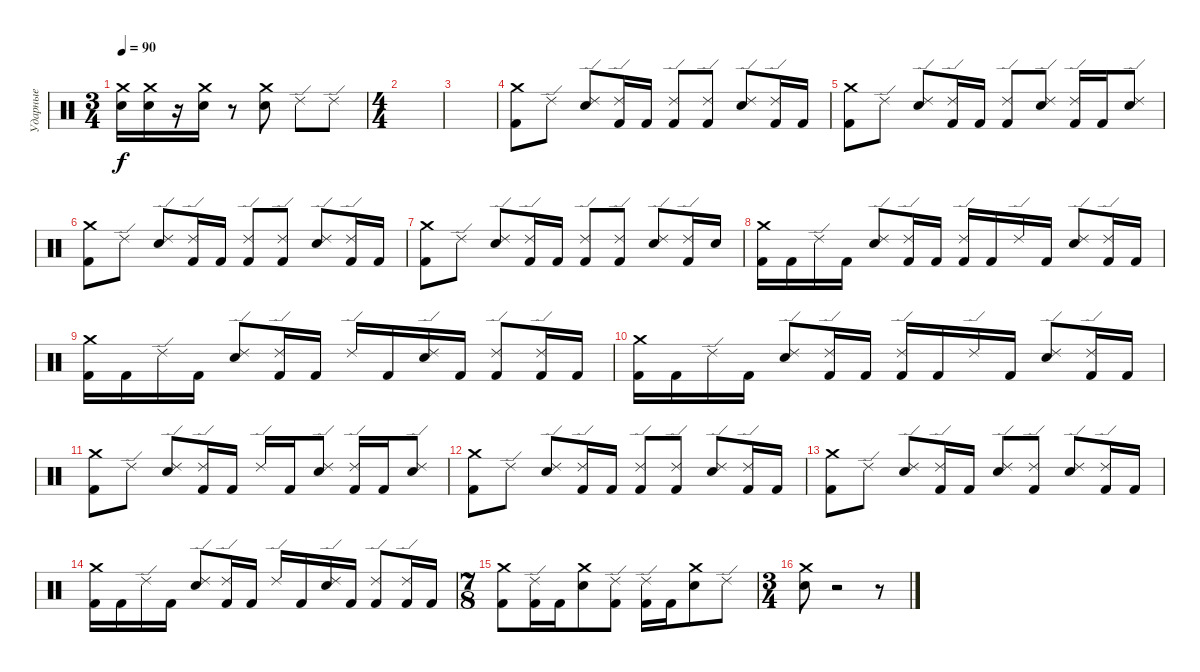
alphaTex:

\track ("Ударные" "Ударные") {instrument percussion}
\staff {score}
\articulation defaults
\ts (3 4)
\tempo 90
\clef neutral
\ks c
("Crash medium (hit)" "Electric Snare (hit)").16{dy f} ("Crash medium (hit)" "Electric Snare (hit)").16 r.16 ("Crash medium (hit)" "Electric Snare (hit)").16 r.8 ("Crash medium (hit)" "Electric Snare (hit)").8 "Ride (edge) 2".8 "Ride (edge) 2".8 |
\ts (4 4)
|
|
("Crash medium (hit)" "Kick (hit) 2").8 "Ride (edge) 2".8 ("Ride (edge) 2" "Electric Snare (hit)").8 ("Ride (edge) 2" "Kick (hit) 2").16 "Kick (hit) 2".16 ("Ride (edge) 2" "Kick (hit) 2").8 ("Ride (edge) 2" "Kick (hit) 2").8 ("Ride (edge) 2" "Electric Snare (hit)").8 ("Ride (edge) 2" "Kick (hit) 2").16 "Kick (hit) 2".16 |
("Crash medium (hit)" "Kick (hit) 2").8 "Ride (edge) 2".8 ("Ride (edge) 2" "Electric Snare (hit)").8 ("Ride (edge) 2" "Kick (hit) 2").16 "Kick (hit) 2".16 ("Ride (edge) 2" "Kick (hit) 2").8 ("Ride (edge) 2" "Electric Snare (hit)").8 ("Ride (edge) 2" "Kick (hit) 2").16 "Kick (hit) 2".16 ("Electric Snare (hit)" "Ride (edge) 2").8 |
("Crash medium (hit)" "Kick (hit) 2").8 "Ride (edge) 2".8 ("Ride (edge) 2" "Electric Snare (hit)").8 ("Ride (edge) 2" "Kick (hit) 2").16 "Kick (hit) 2".16 ("Ride (edge) 2" "Kick (hit) 2").8 ("Ride (edge) 2" "Kick (hit) 2").8 ("Ride (edge) 2" "Electric Snare (hit)").8 ("Ride (edge) 2" "Kick (hit) 2").16 "Kick (hit) 2".16 |
("Crash medium (hit)" "Kick (hit) 2").8 "Ride (edge) 2".8 ("Ride (edge) 2" "Electric Snare (hit)").8 ("Ride (edge) 2" "Kick (hit) 2").16 "Kick (hit) 2".16 ("Ride (edge) 2" "Kick (hit) 2").8 ("Ride (edge) 2" "Kick (hit) 2").8 ("Ride (edge) 2" "Electric Snare (hit)").8 ("Ride (edge) 2" "Kick (hit) 2").16 "Electric Snare (hit)".16 |
("Crash medium (hit)" "Kick (hit) 2").16 "Kick (hit) 2".16 "Ride (edge) 2".16 "Kick (hit) 2".16 ("Ride (edge) 2" "Electric Snare (hit)").8 ("Ride (edge) 2" "Kick (hit) 2").16 "Kick (hit) 2".16 ("Ride (edge) 2" "Kick (hit) 2").16 "Kick (hit) 2".16 "Ride (edge) 2".16 "Kick (hit) 2".16 ("Ride (edge) 2" "Electric Snare (hit)").8 ("Ride (edge) 2" "Kick (hit) 2").16 "Kick (hit) 2".16 |
("Crash medium (hit)" "Kick (hit) 2").16 "Kick (hit) 2".16 "Ride (edge) 2".16 "Kick (hit) 2".16 ("Ride (edge) 2" "Electric Snare (hit)").8 ("Ride (edge) 2" "Kick (hit) 2").16 "Kick (hit) 2".16 "Ride (edge) 2".16 "Kick (hit) 2".16 ("Electric Snare (hit)" "Ride (edge) 2").16 "Kick (hit) 2".16 ("Kick (hit) 2" "Ride (edge) 2").8 ("Ride (edge) 2" "Kick (hit) 2").16 "Kick (hit) 2".16 |
("Crash medium (hit)" "Kick (hit) 2").16 "Kick (hit) 2".16 "Ride (edge) 2".16 "Kick (hit) 2".16 ("Ride (edge) 2" "Electric Snare (hit)").8 ("Ride (edge) 2" "Kick (hit) 2").16 "Kick (hit) 2".16 ("Ride (edge) 2" "Kick (hit) 2").16 "Kick (hit) 2".16 "Ride (edge) 2".16 "Kick (hit) 2".16 ("Ride (edge) 2" "Electric Snare (hit)").8 ("Ride (edge) 2" "Kick (hit) 2").16 "Kick (hit) 2".16 |
("Crash medium (hit)" "Kick (hit) 2").8 "Ride (edge) 2".8 ("Ride (edge) 2" "Electric Snare (hit)").8 ("Ride (edge) 2" "Kick (hit) 2").16 "Kick (hit) 2".16 "Ride (edge) 2".16 "Kick (hit) 2".16 ("Ride (edge) 2" "Electric Snare (hit)").8 ("Ride (edge) 2" "Kick (hit) 2").16 "Kick (hit) 2".16 ("Electric Snare (hit)" "Ride (edge) 2").8 |
("Crash medium (hit)" "Kick (hit) 2").8 "Ride (edge) 2".8 ("Ride (edge) 2" "Electric Snare (hit)").8 ("Ride (edge) 2" "Kick (hit) 2").16 "Kick (hit) 2".16 ("Ride (edge) 2" "Kick (hit) 2").8 ("Ride (edge) 2" "Kick (hit) 2").8 ("Ride (edge) 2" "Electric Snare (hit)").8 ("Ride (edge) 2" "Kick (hit) 2").16 "Kick (hit) 2".16 |
("Crash medium (hit)" "Kick (hit) 2").8 "Ride (edge) 2".8 ("Ride (edge) 2" "Electric Snare (hit)").8 ("Ride (edge) 2" "Kick (hit) 2").16 "Kick (hit) 2".16 ("Ride (edge) 2" "Electric Snare (hit)").8 ("Ride (edge) 2" "Kick (hit) 2").8 ("Ride (edge) 2" "Electric Snare (hit)").8 ("Ride (edge) 2" "Kick (hit) 2").16 "Kick (hit) 2".16 |
("Crash medium (hit)" "Kick (hit) 2").16 "Kick (hit) 2".16 "Ride (edge) 2".16 "Kick (hit) 2".16 ("Ride (edge) 2" "Electric Snare (hit)").8 ("Ride (edge) 2" "Kick (hit) 2").16 "Kick (hit) 2".16 "Ride (edge) 2".16 "Kick (hit) 2".16 ("Electric Snare (hit)" "Ride (edge) 2").16 "Kick (hit) 2".16 ("Kick (hit) 2" "Ride (edge) 2").8 ("Ride (edge) 2" "Kick (hit) 2").16 "Kick (hit) 2".16 |
\ts (7 8)
("Crash medium (hit)" "Kick (hit) 2").8 ("Ride (edge) 2" "Kick (hit) 2").16 "Kick (hit) 2".16 ("Crash medium (hit)" "Electric Snare (hit)").8 ("Ride (edge) 2" "Kick (hit) 2").8 ("Ride (edge) 2" "Kick (hit) 2").16 "Kick (hit) 2".16 ("Crash medium (hit)" "Electric Snare (hit)").8 "Ride (edge) 2".8 |
\ts (3 4)
("Electric Snare (hit)" "Crash medium (hit)").8 r.2 r.8
